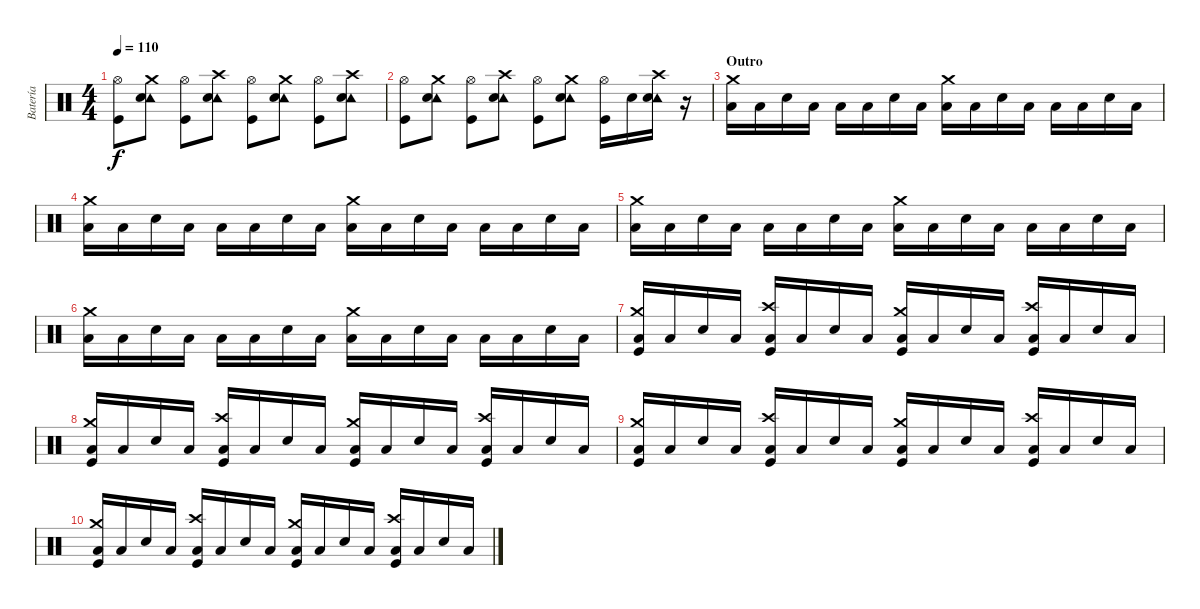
\track ("Batería" "Batería") {instrument percussion}
\staff {score}
\articulation defaults
\ts (4 4)
\tempo 110
\clef neutral
\ks c
("Hi-Hat (open)" "Kick (hit)").8{dy f} ("Crash medium (hit)" "Tambourine (hit)" "Electric Snare (hit)").8 ("Hi-Hat (open)" "Kick (hit)").8 ("Crash high (hit)" "Tambourine (hit)" "Electric Snare (hit)").8 ("Hi-Hat (open)" "Kick (hit)").8 ("Crash medium (hit)" "Tambourine (hit)" "Electric Snare (hit)").8 ("Hi-Hat (open)" "Kick (hit)").8 ("Crash high (hit)" "Tambourine (hit)" "Electric Snare (hit)").8 |
("Hi-Hat (open)" "Kick (hit)").8 ("Crash medium (hit)" "Tambourine (hit)" "Electric Snare (hit)").8 ("Hi-Hat (open)" "Kick (hit)").8 ("Crash high (hit)" "Tambourine (hit)" "Electric Snare (hit)").8 ("Hi-Hat (open)" "Kick (hit)").8 ("Crash medium (hit)" "Tambourine (hit)" "Electric Snare (hit)").8 ("Hi-Hat (open)" "Kick (hit)").16 "Electric Snare (hit)".16 ("Crash high (hit)" "Tambourine (hit)" "Electric Snare (hit)").16 r.16 |
\section ("" "Outro")
("Crash medium (hit)" "Low Tom (hit)").16 "Low Tom (hit)".16 "Electric Snare (hit)".16 "Low Tom (hit)".16 "Low Tom (hit)".16 "Low Tom (hit)".16 "Electric Snare (hit)".16 "Low Tom (hit)".16 ("Crash medium (hit)" "Low Tom (hit)").16 "Low Tom (hit)".16 "Electric Snare (hit)".16 "Low Tom (hit)".16 "Low Tom (hit)".16 "Low Tom (hit)".16 "Electric Snare (hit)".16 "Low Tom (hit)".16 |
("Crash medium (hit)" "Low Tom (hit)").16 "Low Tom (hit)".16 "Electric Snare (hit)".16 "Low Tom (hit)".16 "Low Tom (hit)".16 "Low Tom (hit)".16 "Electric Snare (hit)".16 "Low Tom (hit)".16 ("Crash medium (hit)" "Low Tom (hit)").16 "Low Tom (hit)".16 "Electric Snare (hit)".16 "Low Tom (hit)".16 "Low Tom (hit)".16 "Low Tom (hit)".16 "Electric Snare (hit)".16 "Low Tom (hit)".16 |
("Crash medium (hit)" "Low Tom (hit)").16 "Low Tom (hit)".16 "Electric Snare (hit)".16 "Low Tom (hit)".16 "Low Tom (hit)".16 "Low Tom (hit)".16 "Electric Snare (hit)".16 "Low Tom (hit)".16 ("Crash medium (hit)" "Low Tom (hit)").16 "Low Tom (hit)".16 "Electric Snare (hit)".16 "Low Tom (hit)".16 "Low Tom (hit)".16 "Low Tom (hit)".16 "Electric Snare (hit)".16 "Low Tom (hit)".16 |
("Crash medium (hit)" "Low Tom (hit)").16 "Low Tom (hit)".16 "Electric Snare (hit)".16 "Low Tom (hit)".16 "Low Tom (hit)".16 "Low Tom (hit)".16 "Electric Snare (hit)".16 "Low Tom (hit)".16 ("Crash medium (hit)" "Low Tom (hit)").16 "Low Tom (hit)".16 "Electric Snare (hit)".16 "Low Tom (hit)".16 "Low Tom (hit)".16 "Low Tom (hit)".16 "Electric Snare (hit)".16 "Low Tom (hit)".16 |
("Crash medium (hit)" "Low Tom (hit)" "Kick (hit)").16{volume 9} "Low Tom (hit)".16 "Electric Snare (hit)".16 "Low Tom (hit)".16 ("Crash high (hit)" "Low Tom (hit)" "Kick (hit)").16 "Low Tom (hit)".16 "Electric Snare (hit)".16 "Low Tom (hit)".16 ("Crash medium (hit)" "Low Tom (hit)" "Kick (hit)").16 "Low Tom (hit)".16 "Electric Snare (hit)".16 "Low Tom (hit)".16 ("Crash high (hit)" "Low Tom (hit)" "Kick (hit)").16 "Low Tom (hit)".16 "Electric Snare (hit)".16 "Low Tom (hit)".16 |
("Crash medium (hit)" "Low Tom (hit)" "Kick (hit)").16{volume 7} "Low Tom (hit)".16 "Electric Snare (hit)".16 "Low Tom (hit)".16 ("Crash high (hit)" "Low Tom (hit)" "Kick (hit)").16 "Low Tom (hit)".16 "Electric Snare (hit)".16 "Low Tom (hit)".16 ("Crash medium (hit)" "Low Tom (hit)" "Kick (hit)").16 "Low Tom (hit)".16 "Electric Snare (hit)".16 "Low Tom (hit)".16 ("Crash high (hit)" "Low Tom (hit)" "Kick (hit)").16 "Low Tom (hit)".16 "Electric Snare (hit)".16 "Low Tom (hit)".16 |
("Crash medium (hit)" "Low Tom (hit)" "Kick (hit)").16{volume 5} "Low Tom (hit)".16 "Electric Snare (hit)".16 "Low Tom (hit)".16 ("Crash high (hit)" "Low Tom (hit)" "Kick (hit)").16 "Low Tom (hit)".16 "Electric Snare (hit)".16 "Low Tom (hit)".16 ("Crash medium (hit)" "Low Tom (hit)" "Kick (hit)").16 "Low Tom (hit)".16 "Electric Snare (hit)".16 "Low Tom (hit)".16 ("Crash high (hit)" "Low Tom (hit)" "Kick (hit)").16 "Low Tom (hit)".16 "Electric Snare (hit)".16 "Low Tom (hit)".16 |
("Crash medium (hit)" "Low Tom (hit)" "Kick (hit)").16{volume 0} "Low Tom (hit)".16 "Electric Snare (hit)".16 "Low Tom (hit)".16 ("Crash high (hit)" "Low Tom (hit)" "Kick (hit)").16 "Low Tom (hit)".16 "Electric Snare (hit)".16 "Low Tom (hit)".16 ("Crash medium (hit)" "Low Tom (hit)" "Kick (hit)").16 "Low Tom (hit)".16 "Electric Snare (hit)".16 "Low Tom (hit)".16 ("Crash high (hit)" "Low Tom (hit)" "Kick (hit)").16 "Low Tom (hit)".16 "Electric Snare (hit)".16 "Low Tom (hit)".16
